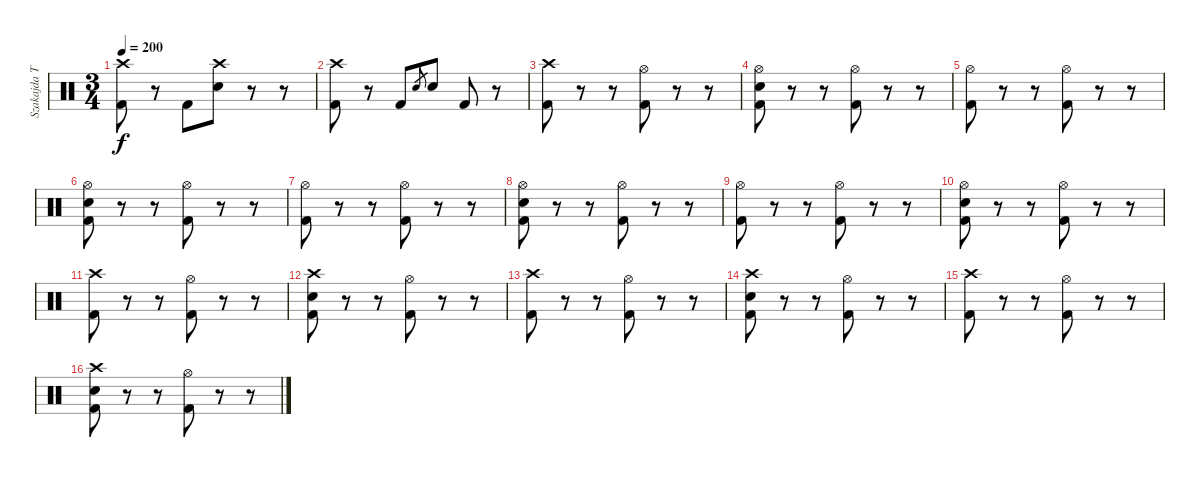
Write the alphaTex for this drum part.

\track ("Szakajda Tibi" "Szakajda T") {instrument percussion}
\staff {score}
\articulation defaults
\ts (3 4)
\tempo 200
\clef neutral
\ks c
("Crash high (hit)" "Kick (hit) 2").8{dy f} r.8 "Kick (hit) 2".8 ("Crash high (hit)" "Electric Snare (hit)").8 r.8 r.8 |
("Crash high (hit)" "Kick (hit) 2").8 r.8 "Kick (hit) 2".8 "Electric Snare (hit)".8{gr} "Electric Snare (hit)".8 "Kick (hit) 2".8 r.8 |
("Crash high (hit)" "Kick (hit) 2").8 r.8 r.8 ("Hi-Hat (open)" "Kick (hit) 2").8 r.8 r.8 |
("Hi-Hat (open)" "Electric Snare (hit)" "Kick (hit) 2").8 r.8 r.8 ("Hi-Hat (open)" "Kick (hit) 2").8 r.8 r.8 |
("Hi-Hat (open)" "Kick (hit) 2").8 r.8 r.8 ("Hi-Hat (open)" "Kick (hit) 2").8 r.8 r.8 |
("Hi-Hat (open)" "Electric Snare (hit)" "Kick (hit) 2").8 r.8 r.8 ("Hi-Hat (open)" "Kick (hit) 2").8 r.8 r.8 |
("Hi-Hat (open)" "Kick (hit) 2").8 r.8 r.8 ("Hi-Hat (open)" "Kick (hit) 2").8 r.8 r.8 |
("Hi-Hat (open)" "Electric Snare (hit)" "Kick (hit) 2").8 r.8 r.8 ("Hi-Hat (open)" "Kick (hit) 2").8 r.8 r.8 |
("Hi-Hat (open)" "Kick (hit) 2").8 r.8 r.8 ("Hi-Hat (open)" "Kick (hit) 2").8 r.8 r.8 |
("Hi-Hat (open)" "Electric Snare (hit)" "Kick (hit) 2").8 r.8 r.8 ("Hi-Hat (open)" "Kick (hit) 2").8 r.8 r.8 |
("Crash high (hit)" "Kick (hit) 2").8 r.8 r.8 ("Hi-Hat (open)" "Kick (hit) 2").8 r.8 r.8 |
("Crash high (hit)" "Electric Snare (hit)" "Kick (hit) 2").8 r.8 r.8 ("Hi-Hat (open)" "Kick (hit) 2").8 r.8 r.8 |
("Crash high (hit)" "Kick (hit) 2").8 r.8 r.8 ("Hi-Hat (open)" "Kick (hit) 2").8 r.8 r.8 |
("Crash high (hit)" "Electric Snare (hit)" "Kick (hit) 2").8 r.8 r.8 ("Hi-Hat (open)" "Kick (hit) 2").8 r.8 r.8 |
("Crash high (hit)" "Kick (hit) 2").8 r.8 r.8 ("Hi-Hat (open)" "Kick (hit) 2").8 r.8 r.8 |
("Crash high (hit)" "Electric Snare (hit)" "Kick (hit) 2").8 r.8 r.8 ("Hi-Hat (open)" "Kick (hit) 2").8 r.8 r.8
